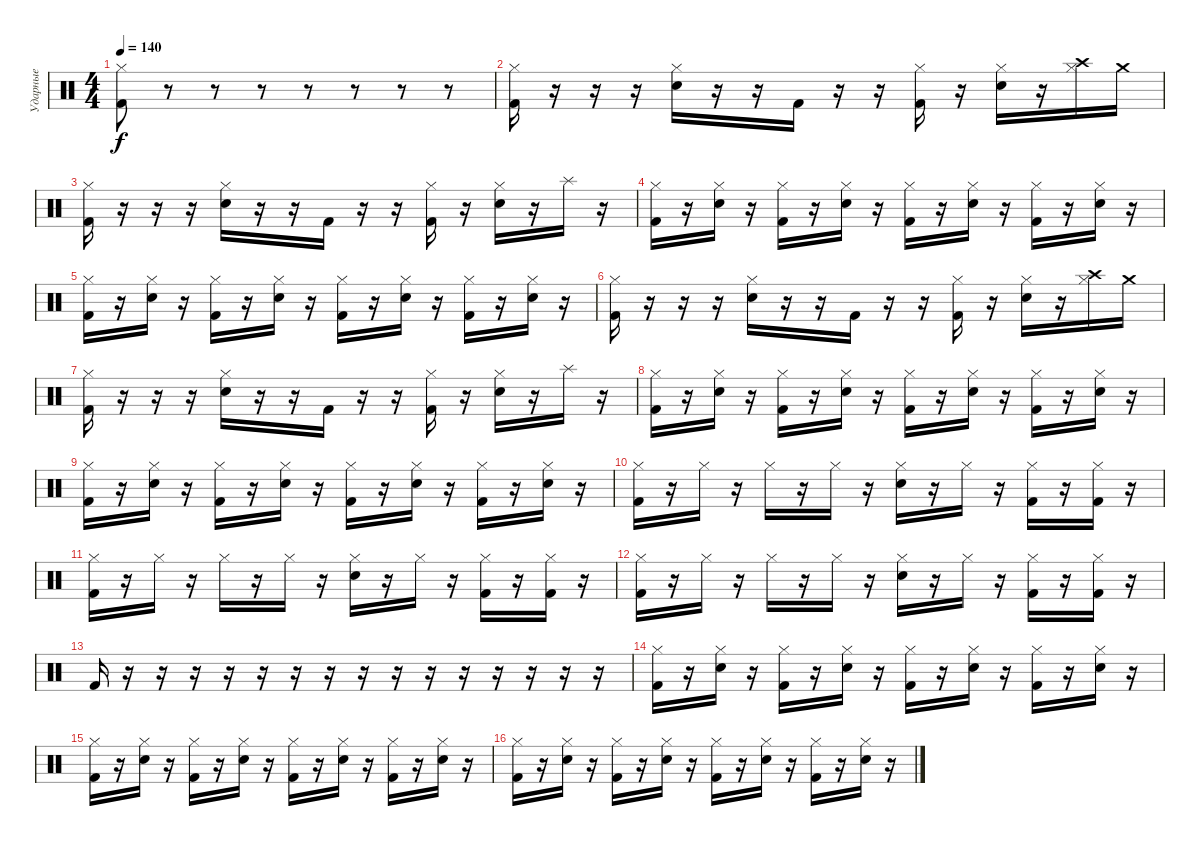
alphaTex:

\track ("Ударные" "Ударные") {instrument percussion}
\staff {score}
\articulation defaults
\ts (4 4)
\tempo 140
\clef neutral
\ks c
("Hi-Hat (closed)" "Kick (hit) 2").8{dy f} r.8 r.8 r.8 r.8 r.8 r.8 r.8 |
("Kick (hit) 2" "Hi-Hat (closed)").16 r.16 r.16 r.16 ("Electric Snare (hit)" "Hi-Hat (closed)").16 r.16 r.16 "Kick (hit) 2".16 r.16 r.16 ("Kick (hit) 2" "Hi-Hat (closed)").16 r.16 ("Electric Snare (hit)" "Hi-Hat (closed)").16 r.16 ("Crash high (hit)" "Hi-Hat (closed)").16 "Crash medium (hit)".16 |
("Kick (hit) 2" "Hi-Hat (closed)").16 r.16 r.16 r.16 ("Electric Snare (hit)" "Hi-Hat (closed)").16 r.16 r.16 "Kick (hit) 2".16 r.16 r.16 ("Kick (hit) 2" "Hi-Hat (closed)").16 r.16 ("Electric Snare (hit)" "Hi-Hat (closed)").16 r.16 "Splash (hit)".16 r.16 |
("Kick (hit) 2" "Hi-Hat (closed)").16 r.16 ("Electric Snare (hit)" "Hi-Hat (closed)").16 r.16 ("Kick (hit) 2" "Hi-Hat (closed)").16 r.16 ("Electric Snare (hit)" "Hi-Hat (closed)").16 r.16 ("Kick (hit) 2" "Hi-Hat (closed)").16 r.16 ("Electric Snare (hit)" "Hi-Hat (closed)").16 r.16 ("Kick (hit) 2" "Hi-Hat (closed)").16 r.16 ("Electric Snare (hit)" "Hi-Hat (closed)").16 r.16 |
("Kick (hit) 2" "Hi-Hat (closed)").16 r.16 ("Electric Snare (hit)" "Hi-Hat (closed)").16 r.16 ("Kick (hit) 2" "Hi-Hat (closed)").16 r.16 ("Electric Snare (hit)" "Hi-Hat (closed)").16 r.16 ("Kick (hit) 2" "Hi-Hat (closed)").16 r.16 ("Electric Snare (hit)" "Hi-Hat (closed)").16 r.16 ("Kick (hit) 2" "Hi-Hat (closed)").16 r.16 ("Electric Snare (hit)" "Hi-Hat (closed)").16 r.16 |
("Kick (hit) 2" "Hi-Hat (closed)").16 r.16 r.16 r.16 ("Electric Snare (hit)" "Hi-Hat (closed)").16 r.16 r.16 "Kick (hit) 2".16 r.16 r.16 ("Kick (hit) 2" "Hi-Hat (closed)").16 r.16 ("Electric Snare (hit)" "Hi-Hat (closed)").16 r.16 ("Crash high (hit)" "Hi-Hat (closed)").16 "Crash medium (hit)".16 |
("Kick (hit) 2" "Hi-Hat (closed)").16 r.16 r.16 r.16 ("Electric Snare (hit)" "Hi-Hat (closed)").16 r.16 r.16 "Kick (hit) 2".16 r.16 r.16 ("Kick (hit) 2" "Hi-Hat (closed)").16 r.16 ("Electric Snare (hit)" "Hi-Hat (closed)").16 r.16 "Splash (hit)".16 r.16 |
("Kick (hit) 2" "Hi-Hat (closed)").16 r.16 ("Electric Snare (hit)" "Hi-Hat (closed)").16 r.16 ("Kick (hit) 2" "Hi-Hat (closed)").16 r.16 ("Electric Snare (hit)" "Hi-Hat (closed)").16 r.16 ("Kick (hit) 2" "Hi-Hat (closed)").16 r.16 ("Electric Snare (hit)" "Hi-Hat (closed)").16 r.16 ("Kick (hit) 2" "Hi-Hat (closed)").16 r.16 ("Electric Snare (hit)" "Hi-Hat (closed)").16 r.16 |
("Kick (hit) 2" "Hi-Hat (closed)").16 r.16 ("Electric Snare (hit)" "Hi-Hat (closed)").16 r.16 ("Kick (hit) 2" "Hi-Hat (closed)").16 r.16 ("Electric Snare (hit)" "Hi-Hat (closed)").16 r.16 ("Kick (hit) 2" "Hi-Hat (closed)").16 r.16 ("Electric Snare (hit)" "Hi-Hat (closed)").16 r.16 ("Kick (hit) 2" "Hi-Hat (closed)").16 r.16 ("Electric Snare (hit)" "Hi-Hat (closed)").16 r.16 |
("Kick (hit) 2" "Hi-Hat (closed)").16 r.16 "Hi-Hat (closed)".16 r.16 "Hi-Hat (closed)".16 r.16 "Hi-Hat (closed)".16 r.16 ("Electric Snare (hit)" "Hi-Hat (closed)").16 r.16 "Hi-Hat (closed)".16 r.16 ("Kick (hit) 2" "Hi-Hat (closed)").16 r.16 ("Kick (hit) 2" "Hi-Hat (closed)").16 r.16 |
("Kick (hit) 2" "Hi-Hat (closed)").16 r.16 "Hi-Hat (closed)".16 r.16 "Hi-Hat (closed)".16 r.16 "Hi-Hat (closed)".16 r.16 ("Electric Snare (hit)" "Hi-Hat (closed)").16 r.16 "Hi-Hat (closed)".16 r.16 ("Kick (hit) 2" "Hi-Hat (closed)").16 r.16 ("Kick (hit) 2" "Hi-Hat (closed)").16 r.16 |
("Kick (hit) 2" "Hi-Hat (closed)").16 r.16 "Hi-Hat (closed)".16 r.16 "Hi-Hat (closed)".16 r.16 "Hi-Hat (closed)".16 r.16 ("Electric Snare (hit)" "Hi-Hat (closed)").16 r.16 "Hi-Hat (closed)".16 r.16 ("Kick (hit) 2" "Hi-Hat (closed)").16 r.16 ("Kick (hit) 2" "Hi-Hat (closed)").16 r.16 |
"Kick (hit) 2".16 r.16 r.16 r.16 r.16 r.16 r.16 r.16 r.16 r.16 r.16 r.16 r.16 r.16 r.16 r.16 |
("Kick (hit) 2" "Hi-Hat (closed)").16 r.16 ("Electric Snare (hit)" "Hi-Hat (closed)").16 r.16 ("Kick (hit) 2" "Hi-Hat (closed)").16 r.16 ("Electric Snare (hit)" "Hi-Hat (closed)").16 r.16 ("Kick (hit) 2" "Hi-Hat (closed)").16 r.16 ("Electric Snare (hit)" "Hi-Hat (closed)").16 r.16 ("Kick (hit) 2" "Hi-Hat (closed)").16 r.16 ("Electric Snare (hit)" "Hi-Hat (closed)").16 r.16 |
("Kick (hit) 2" "Hi-Hat (closed)").16 r.16 ("Electric Snare (hit)" "Hi-Hat (closed)").16 r.16 ("Kick (hit) 2" "Hi-Hat (closed)").16 r.16 ("Electric Snare (hit)" "Hi-Hat (closed)").16 r.16 ("Kick (hit) 2" "Hi-Hat (closed)").16 r.16 ("Electric Snare (hit)" "Hi-Hat (closed)").16 r.16 ("Kick (hit) 2" "Hi-Hat (closed)").16 r.16 ("Electric Snare (hit)" "Hi-Hat (closed)").16 r.16 |
("Kick (hit) 2" "Hi-Hat (closed)").16 r.16 ("Electric Snare (hit)" "Hi-Hat (closed)").16 r.16 ("Kick (hit) 2" "Hi-Hat (closed)").16 r.16 ("Electric Snare (hit)" "Hi-Hat (closed)").16 r.16 ("Kick (hit) 2" "Hi-Hat (closed)").16 r.16 ("Electric Snare (hit)" "Hi-Hat (closed)").16 r.16 ("Kick (hit) 2" "Hi-Hat (closed)").16 r.16 ("Electric Snare (hit)" "Hi-Hat (closed)").16 r.16
